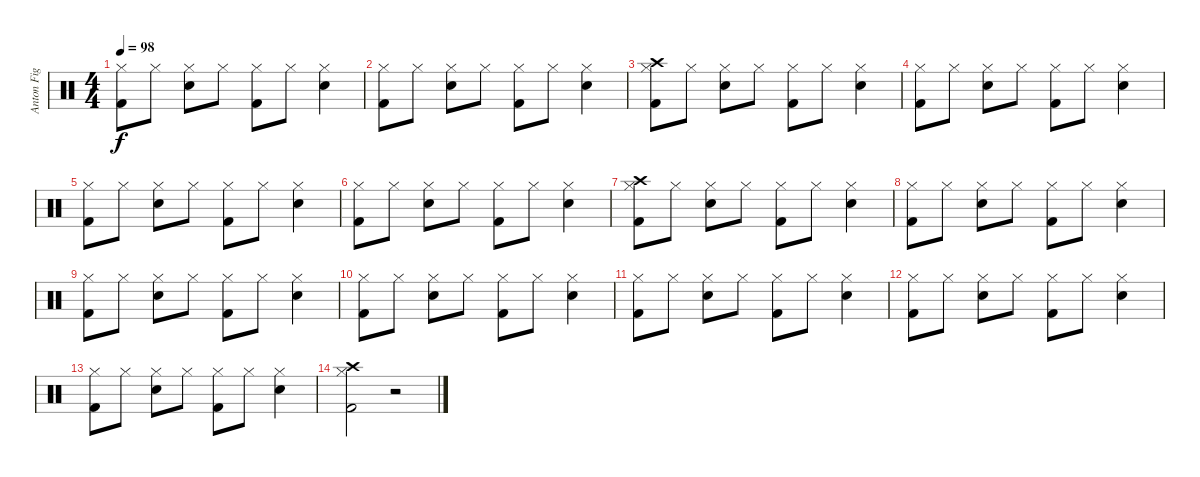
\track ("Anton Fig" "Anton Fig") {instrument percussion}
\staff {score}
\articulation defaults
\ts (4 4)
\tempo 98
\clef neutral
\ks c
("Hi-Hat (closed)" "Kick (hit) 2").8{dy f} "Hi-Hat (closed)".8 ("Hi-Hat (closed)" "Snare (hit) 2").8 "Hi-Hat (closed)".8 ("Hi-Hat (closed)" "Kick (hit) 2").8 "Hi-Hat (closed)".8 ("Hi-Hat (closed)" "Snare (hit) 2").4 |
("Hi-Hat (closed)" "Kick (hit) 2").8 "Hi-Hat (closed)".8 ("Hi-Hat (closed)" "Snare (hit) 2").8 "Hi-Hat (closed)".8 ("Hi-Hat (closed)" "Kick (hit) 2").8 "Hi-Hat (closed)".8 ("Hi-Hat (closed)" "Snare (hit) 2").4 |
("Hi-Hat (closed)" "Crash high (hit)" "Kick (hit) 2").8 "Hi-Hat (closed)".8 ("Hi-Hat (closed)" "Snare (hit) 2").8 "Hi-Hat (closed)".8 ("Hi-Hat (closed)" "Kick (hit) 2").8 "Hi-Hat (closed)".8 ("Hi-Hat (closed)" "Snare (hit) 2").4 |
("Hi-Hat (closed)" "Kick (hit) 2").8 "Hi-Hat (closed)".8 ("Hi-Hat (closed)" "Snare (hit) 2").8 "Hi-Hat (closed)".8 ("Hi-Hat (closed)" "Kick (hit) 2").8 "Hi-Hat (closed)".8 ("Hi-Hat (closed)" "Snare (hit) 2").4 |
("Hi-Hat (closed)" "Kick (hit) 2").8 "Hi-Hat (closed)".8 ("Hi-Hat (closed)" "Snare (hit) 2").8 "Hi-Hat (closed)".8 ("Hi-Hat (closed)" "Kick (hit) 2").8 "Hi-Hat (closed)".8 ("Hi-Hat (closed)" "Snare (hit) 2").4 |
("Hi-Hat (closed)" "Kick (hit) 2").8 "Hi-Hat (closed)".8 ("Hi-Hat (closed)" "Snare (hit) 2").8 "Hi-Hat (closed)".8 ("Hi-Hat (closed)" "Kick (hit) 2").8 "Hi-Hat (closed)".8 ("Hi-Hat (closed)" "Snare (hit) 2").4 |
("Hi-Hat (closed)" "Crash high (hit)" "Kick (hit) 2").8 "Hi-Hat (closed)".8 ("Hi-Hat (closed)" "Snare (hit) 2").8 "Hi-Hat (closed)".8 ("Hi-Hat (closed)" "Kick (hit) 2").8 "Hi-Hat (closed)".8 ("Hi-Hat (closed)" "Snare (hit) 2").4 |
("Hi-Hat (closed)" "Kick (hit) 2").8 "Hi-Hat (closed)".8 ("Hi-Hat (closed)" "Snare (hit) 2").8 "Hi-Hat (closed)".8 ("Hi-Hat (closed)" "Kick (hit) 2").8 "Hi-Hat (closed)".8 ("Hi-Hat (closed)" "Snare (hit) 2").4 |
("Hi-Hat (closed)" "Kick (hit) 2").8 "Hi-Hat (closed)".8 ("Hi-Hat (closed)" "Snare (hit) 2").8 "Hi-Hat (closed)".8 ("Hi-Hat (closed)" "Kick (hit) 2").8 "Hi-Hat (closed)".8 ("Hi-Hat (closed)" "Snare (hit) 2").4 |
("Hi-Hat (closed)" "Kick (hit) 2").8 "Hi-Hat (closed)".8 ("Hi-Hat (closed)" "Snare (hit) 2").8 "Hi-Hat (closed)".8 ("Hi-Hat (closed)" "Kick (hit) 2").8 "Hi-Hat (closed)".8 ("Hi-Hat (closed)" "Snare (hit) 2").4 |
("Hi-Hat (closed)" "Kick (hit) 2").8 "Hi-Hat (closed)".8 ("Hi-Hat (closed)" "Snare (hit) 2").8 "Hi-Hat (closed)".8 ("Hi-Hat (closed)" "Kick (hit) 2").8 "Hi-Hat (closed)".8 ("Hi-Hat (closed)" "Snare (hit) 2").4 |
("Hi-Hat (closed)" "Kick (hit) 2").8 "Hi-Hat (closed)".8 ("Hi-Hat (closed)" "Snare (hit) 2").8 "Hi-Hat (closed)".8 ("Hi-Hat (closed)" "Kick (hit) 2").8 "Hi-Hat (closed)".8 ("Hi-Hat (closed)" "Snare (hit) 2").4 |
("Hi-Hat (closed)" "Kick (hit) 2").8 "Hi-Hat (closed)".8 ("Hi-Hat (closed)" "Snare (hit) 2").8 "Hi-Hat (closed)".8 ("Hi-Hat (closed)" "Kick (hit) 2").8 "Hi-Hat (closed)".8 ("Hi-Hat (closed)" "Snare (hit) 2").4 |
("Hi-Hat (closed)" "Crash high (hit)" "Kick (hit) 2").2 r.2
